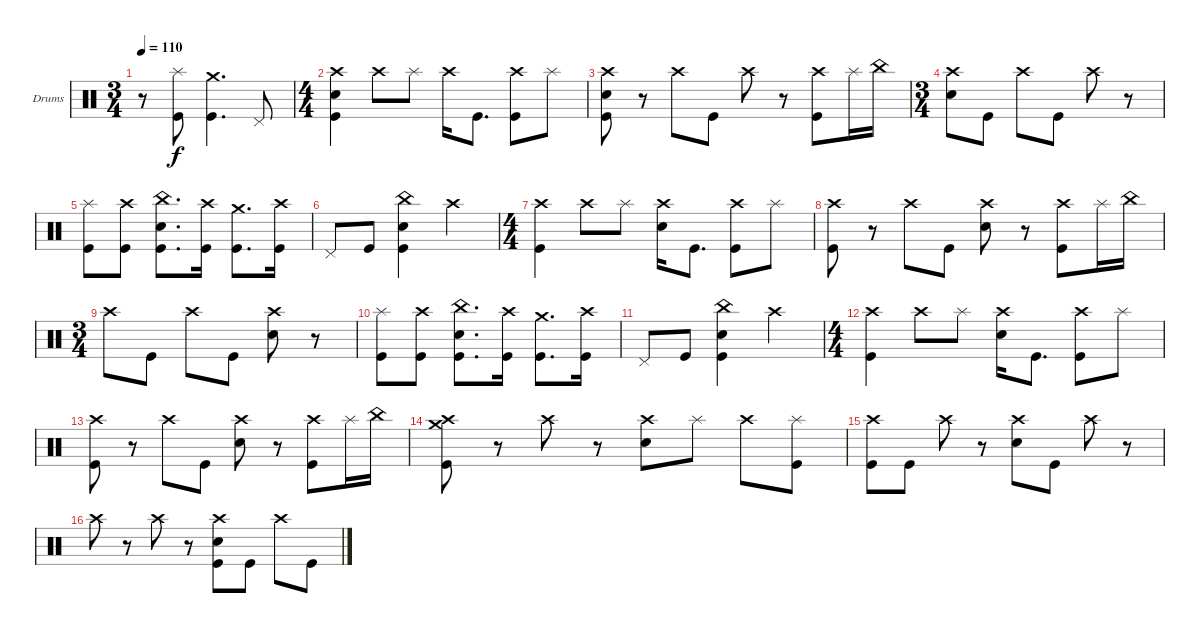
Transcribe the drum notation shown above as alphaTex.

\bracketExtendMode groupsimilarinstruments
\firstSystemTrackNameOrientation horizontal
\otherSystemsTrackNameOrientation horizontal
\track ("Drumkit" "Drums") {instrument percussion}
\staff {score}
\articulation defaults
\ts (3 4)
\beaming (8 2 2 2 2)
\tempo 110
\clef neutral
\ks c
r.8{dy f} ("Splash (hit)" "Kick (hit)").8 ("Crash medium (hit)" "Kick (hit)").4{d} "Pedal Hi-Hat (hit)".8 |
\ts (4 4)
\beaming (8 2 2 2 2)
("Snare (hit) 2" "Crash high (hit)" "Kick (hit)").4 "Crash high (hit)".8 "Splash (hit)".8 "Crash high (hit)".16 "Kick (hit)".8{d} ("Crash high (hit)" "Kick (hit)").8 "Splash (hit)".8 |
("Snare (hit) 2" "Crash high (hit)" "Kick (hit)").8 r.8 "Crash high (hit)".8 "Kick (hit)".8 "Crash high (hit)".8 r.8 ("Crash high (hit)" "Kick (hit)").8 "Splash (hit)".16 "China (hit)".16 |
\ts (3 4)
\beaming (8 2 2 2 2)
("Crash high (hit)" "Snare (hit) 2").8 "Kick (hit)".8 "Crash high (hit)".8 "Kick (hit)".8 "Crash high (hit)".8 r.8 |
("Splash (hit)" "Kick (hit)").8 ("Crash high (hit)" "Kick (hit)").8 ("China (hit)" "Snare (hit) 2" "Kick (hit)").8{d} ("Crash high (hit)" "Kick (hit)").16 ("Crash medium (hit)" "Kick (hit)").8{d} ("Crash high (hit)" "Kick (hit)").16 |
"Pedal Hi-Hat (hit)".8 "Kick (hit)".8 ("China (hit)" "Snare (hit) 2" "Kick (hit)").4 "Crash high (hit)".4 |
\ts (4 4)
\beaming (8 2 2 2 2)
("Crash high (hit)" "Kick (hit)").4 "Crash high (hit)".8 "Splash (hit)".8 ("Crash high (hit)" "Snare (hit) 2").16 "Kick (hit)".8{d} ("Crash high (hit)" "Kick (hit)").8 "Splash (hit)".8 |
("Crash high (hit)" "Kick (hit)").8 r.8 "Crash high (hit)".8 "Kick (hit)".8 ("Crash high (hit)" "Snare (hit) 2").8 r.8 ("Crash high (hit)" "Kick (hit)").8 "Splash (hit)".16 "China (hit)".16 |
\ts (3 4)
\beaming (8 2 2 2 2)
"Crash high (hit)".8 "Kick (hit)".8 "Crash high (hit)".8 "Kick (hit)".8 ("Crash high (hit)" "Snare (hit) 2").8 r.8 |
("Splash (hit)" "Kick (hit)").8 ("Crash high (hit)" "Kick (hit)").8 ("China (hit)" "Snare (hit) 2" "Kick (hit)").8{d} ("Crash high (hit)" "Kick (hit)").16 ("Crash medium (hit)" "Kick (hit)").8{d} ("Crash high (hit)" "Kick (hit)").16 |
"Pedal Hi-Hat (hit)".8 "Kick (hit)".8 ("China (hit)" "Snare (hit) 2" "Kick (hit)").4 "Crash high (hit)".4 |
\ts (4 4)
\beaming (8 2 2 2 2)
("Crash high (hit)" "Kick (hit)").4 "Crash high (hit)".8 "Splash (hit)".8 ("Crash high (hit)" "Snare (hit) 2").16 "Kick (hit)".8{d} ("Crash high (hit)" "Kick (hit)").8 "Splash (hit)".8 |
("Crash high (hit)" "Kick (hit)").8 r.8 "Crash high (hit)".8 "Kick (hit)".8 ("Crash high (hit)" "Snare (hit) 2").8 r.8 ("Crash high (hit)" "Kick (hit)").8 "Splash (hit)".16 "China (hit)".16 |
("Crash high (hit)" "Crash medium (hit)" "Kick (hit)").8 r.8 "Crash high (hit)".8 r.8 ("Snare (hit) 2" "Crash high (hit)").8 "Splash (hit)".8 "Crash high (hit)".8 ("Splash (hit)" "Kick (hit)").8 |
("Crash high (hit)" "Kick (hit)").8 "Kick (hit)".8 "Crash high (hit)".8 r.8 ("Crash high (hit)" "Snare (hit) 2").8 "Kick (hit)".8 "Crash high (hit)".8 r.8 |
"Crash high (hit)".8 r.8 "Crash high (hit)".8 r.8 ("Crash high (hit)" "Snare (hit) 2" "Kick (hit)").8 "Kick (hit)".8 "Crash high (hit)".8 "Kick (hit)".8
